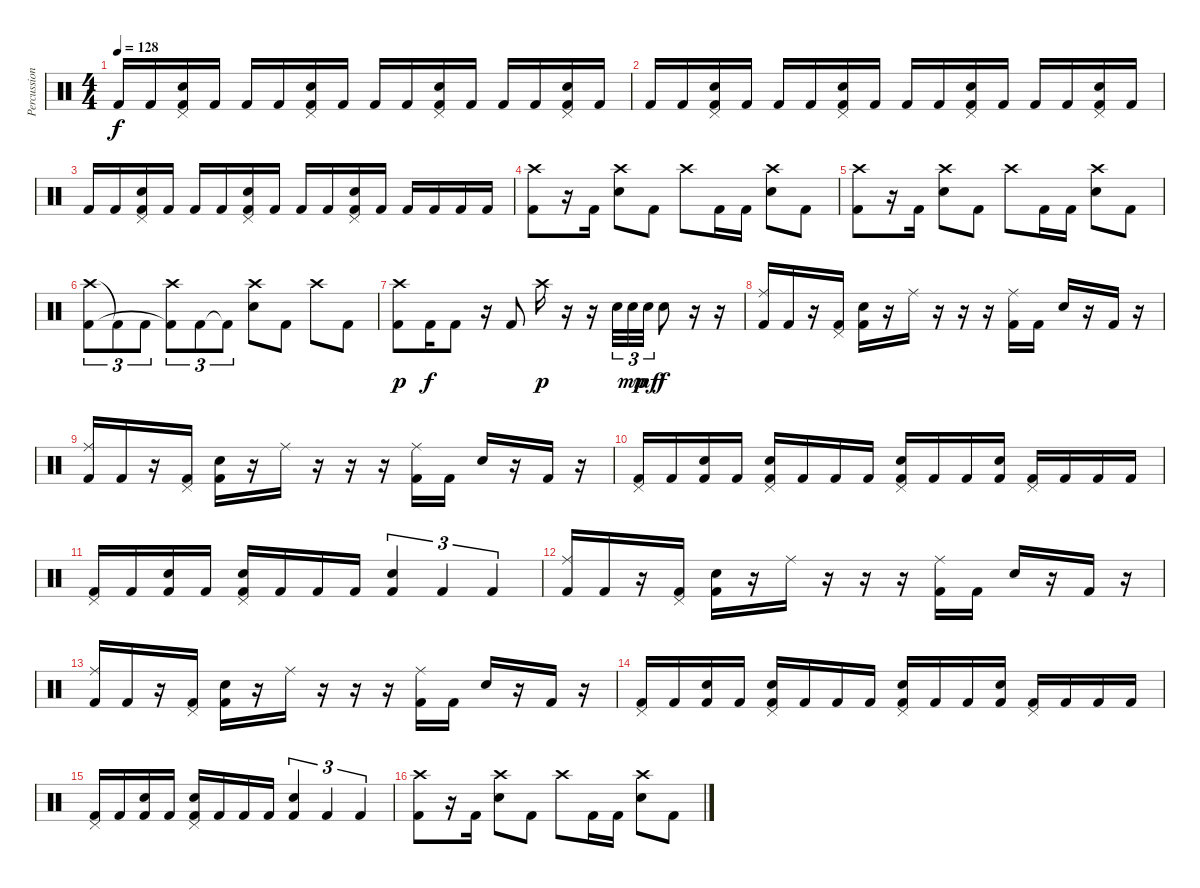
\track ("Percussion" "Percussion") {instrument percussion}
\staff {score}
\articulation defaults
\ts (4 4)
\tempo 128
\clef neutral
\ks c "Kick (hit) 2".16{dy f} "Kick (hit) 2".16
("Pedal Hi-Hat (hit)" "Snare (hit) 2" "Kick (hit) 2").16 "Kick (hit) 2".16 "Kick (hit) 2".16 "Kick (hit) 2".16 ("Pedal Hi-Hat (hit)" "Snare (hit) 2" "Kick (hit) 2").16 "Kick (hit) 2".16 "Kick (hit) 2".16 "Kick (hit) 2".16 ("Pedal Hi-Hat (hit)" "Snare (hit) 2" "Kick (hit) 2").16 "Kick (hit) 2".16 "Kick (hit) 2".16 "Kick (hit) 2".16 ("Pedal Hi-Hat (hit)" "Snare (hit) 2" "Kick (hit) 2").16 "Kick (hit) 2".16 |
"Kick (hit) 2".16 "Kick (hit) 2".16 ("Pedal Hi-Hat (hit)" "Snare (hit) 2" "Kick (hit) 2").16 "Kick (hit) 2".16 "Kick (hit) 2".16 "Kick (hit) 2".16 ("Pedal Hi-Hat (hit)" "Snare (hit) 2" "Kick (hit) 2").16 "Kick (hit) 2".16 "Kick (hit) 2".16 "Kick (hit) 2".16 ("Pedal Hi-Hat (hit)" "Snare (hit) 2" "Kick (hit) 2").16 "Kick (hit) 2".16 "Kick (hit) 2".16 "Kick (hit) 2".16 ("Pedal Hi-Hat (hit)" "Snare (hit) 2" "Kick (hit) 2").16 "Kick (hit) 2".16 |
"Kick (hit) 2".16 "Kick (hit) 2".16 ("Pedal Hi-Hat (hit)" "Snare (hit) 2" "Kick (hit) 2").16 "Kick (hit) 2".16 "Kick (hit) 2".16 "Kick (hit) 2".16 ("Pedal Hi-Hat (hit)" "Snare (hit) 2" "Kick (hit) 2").16 "Kick (hit) 2".16 "Kick (hit) 2".16 "Kick (hit) 2".16 ("Pedal Hi-Hat (hit)" "Snare (hit) 2" "Kick (hit) 2").16 "Kick (hit) 2".16 "Kick (hit) 2".16 "Kick (hit) 2".16 "Kick (hit) 2".16 "Kick (hit) 2".16 |
("Crash high (hit)" "Kick (hit) 2").8 r.16 "Kick (hit) 2".16 ("Crash high (hit)" "Snare (hit) 2").8 "Kick (hit) 2".8 "Crash high (hit)".8 "Kick (hit) 2".16 "Kick (hit) 2".16 ("Crash high (hit)" "Snare (hit) 2").8 "Kick (hit) 2".8 |
("Crash high (hit)" "Kick (hit) 2").8 r.16 "Kick (hit) 2".16 ("Crash high (hit)" "Snare (hit) 2").8 "Kick (hit) 2".8 "Crash high (hit)".8 "Kick (hit) 2".16 "Kick (hit) 2".16 ("Crash high (hit)" "Snare (hit) 2").8 "Kick (hit) 2".8 |
("Crash high (hit)" "Kick (hit) 2").8{tu (3 2)} "Kick (hit) 2"{t}.8{tu (3 2)} "Kick (hit) 2".8{tu (3 2)} ("Crash high (hit)" "Kick (hit) 2"{t}).8{tu (3 2)} "Kick (hit) 2".8{tu (3 2)} "Kick (hit) 2"{t}.8{tu (3 2)} ("Crash high (hit)" "Snare (hit) 2").8 "Kick (hit) 2".8 "Crash high (hit)".8 "Kick (hit) 2".8 |
("Crash high (hit)" "Kick (hit) 2").8{dy p} "Kick (hit) 2".16{dy f} "Kick (hit) 2".8 r.16 "Kick (hit) 2".8 "Crash high (hit)".16{dy p} r.16 r.16 "Snare (hit) 2".32{tu (3 2)} "Snare (hit) 2".32{tu (3 2) dy mp} "Snare (hit) 2".32{tu (3 2) dy mf} "Snare (hit) 2".8{dy f} r.16 r.16 |
("Ride (middle)" "Kick (hit) 2").16 "Kick (hit) 2".16 r.16 ("Pedal Hi-Hat (hit)" "Kick (hit) 2").16 ("Snare (hit) 2" "Kick (hit) 2").16 r.16 "Ride (middle)".16 r.16 r.16 r.16 ("Ride (middle)" "Kick (hit) 2").16 "Kick (hit) 2".16 "Snare (hit) 2".16 r.16 "Kick (hit) 2".16 r.16 |
("Ride (middle)" "Kick (hit) 2").16 "Kick (hit) 2".16 r.16 ("Pedal Hi-Hat (hit)" "Kick (hit) 2").16 ("Snare (hit) 2" "Kick (hit) 2").16 r.16 "Ride (middle)".16 r.16 r.16 r.16 ("Ride (middle)" "Kick (hit) 2").16 "Kick (hit) 2".16 "Snare (hit) 2".16 r.16 "Kick (hit) 2".16 r.16 |
("Pedal Hi-Hat (hit)" "Kick (hit) 2").16 "Kick (hit) 2".16 ("Snare (hit) 2" "Kick (hit) 2").16 "Kick (hit) 2".16 ("Pedal Hi-Hat (hit)" "Snare (hit) 2" "Kick (hit) 2").16 "Kick (hit) 2".16 "Kick (hit) 2".16 "Kick (hit) 2".16 ("Pedal Hi-Hat (hit)" "Snare (hit) 2" "Kick (hit) 2").16 "Kick (hit) 2".16 "Kick (hit) 2".16 ("Snare (hit) 2" "Kick (hit) 2").16 ("Pedal Hi-Hat (hit)" "Kick (hit) 2").16 "Kick (hit) 2".16 "Kick (hit) 2".16 "Kick (hit) 2".16 |
("Pedal Hi-Hat (hit)" "Kick (hit) 2").16 "Kick (hit) 2".16 ("Snare (hit) 2" "Kick (hit) 2").16 "Kick (hit) 2".16 ("Pedal Hi-Hat (hit)" "Snare (hit) 2" "Kick (hit) 2").16 "Kick (hit) 2".16 "Kick (hit) 2".16 "Kick (hit) 2".16 ("Snare (hit) 2" "Kick (hit) 2").4{tu (3 2)} "Kick (hit) 2".4{tu (3 2)} "Kick (hit) 2".4{tu (3 2)} |
("Ride (middle)" "Kick (hit) 2").16 "Kick (hit) 2".16 r.16 ("Pedal Hi-Hat (hit)" "Kick (hit) 2").16 ("Snare (hit) 2" "Kick (hit) 2").16 r.16 "Ride (middle)".16 r.16 r.16 r.16 ("Ride (middle)" "Kick (hit) 2").16 "Kick (hit) 2".16 "Snare (hit) 2".16 r.16 "Kick (hit) 2".16 r.16 |
("Ride (middle)" "Kick (hit) 2").16 "Kick (hit) 2".16 r.16 ("Pedal Hi-Hat (hit)" "Kick (hit) 2").16 ("Snare (hit) 2" "Kick (hit) 2").16 r.16 "Ride (middle)".16 r.16 r.16 r.16 ("Ride (middle)" "Kick (hit) 2").16 "Kick (hit) 2".16 "Snare (hit) 2".16 r.16 "Kick (hit) 2".16 r.16 |
("Pedal Hi-Hat (hit)" "Kick (hit) 2").16 "Kick (hit) 2".16 ("Snare (hit) 2" "Kick (hit) 2").16 "Kick (hit) 2".16 ("Pedal Hi-Hat (hit)" "Snare (hit) 2" "Kick (hit) 2").16 "Kick (hit) 2".16 "Kick (hit) 2".16 "Kick (hit) 2".16 ("Pedal Hi-Hat (hit)" "Snare (hit) 2" "Kick (hit) 2").16 "Kick (hit) 2".16 "Kick (hit) 2".16 ("Snare (hit) 2" "Kick (hit) 2").16 ("Pedal Hi-Hat (hit)" "Kick (hit) 2").16 "Kick (hit) 2".16 "Kick (hit) 2".16 "Kick (hit) 2".16 |
("Pedal Hi-Hat (hit)" "Kick (hit) 2").16 "Kick (hit) 2".16 ("Snare (hit) 2" "Kick (hit) 2").16 "Kick (hit) 2".16 ("Pedal Hi-Hat (hit)" "Snare (hit) 2" "Kick (hit) 2").16 "Kick (hit) 2".16 "Kick (hit) 2".16 "Kick (hit) 2".16 ("Snare (hit) 2" "Kick (hit) 2").4{tu (3 2)} "Kick (hit) 2".4{tu (3 2)} "Kick (hit) 2".4{tu (3 2)} |
("Crash high (hit)" "Kick (hit) 2").8 r.16 "Kick (hit) 2".16 ("Crash high (hit)" "Snare (hit) 2").8 "Kick (hit) 2".8 "Crash high (hit)".8 "Kick (hit) 2".16 "Kick (hit) 2".16 ("Crash high (hit)" "Snare (hit) 2").8 "Kick (hit) 2".8
